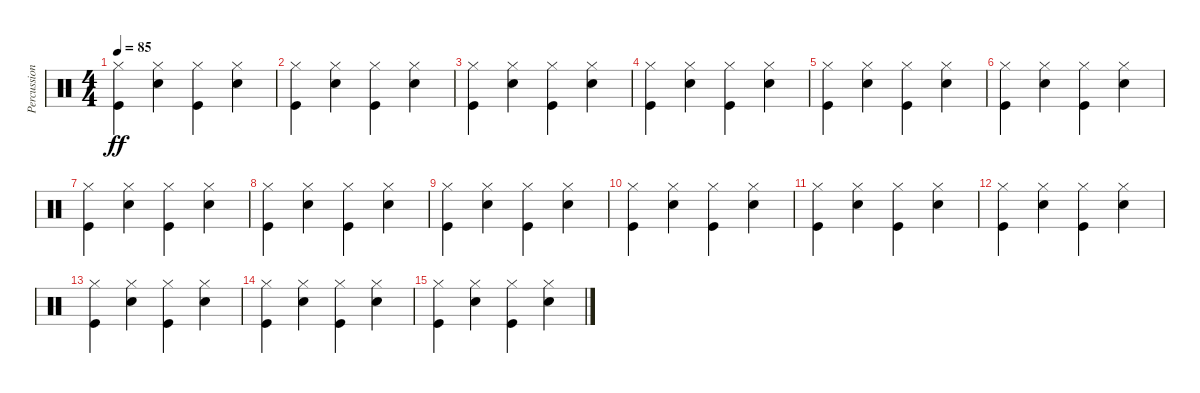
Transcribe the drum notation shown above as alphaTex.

\track ("Percussion" "Percussion") {instrument percussion}
\staff {score}
\articulation defaults
\ts (4 4)
\tempo 85
\clef neutral
\ks c
("Hi-Hat (closed)" "Kick (hit)").4{dy ff} ("Hi-Hat (closed)" "Snare (hit) 2").4 ("Hi-Hat (closed)" "Kick (hit)").4 ("Hi-Hat (closed)" "Snare (hit) 2").4 |
("Hi-Hat (closed)" "Kick (hit)").4 ("Hi-Hat (closed)" "Snare (hit) 2").4 ("Hi-Hat (closed)" "Kick (hit)").4 ("Hi-Hat (closed)" "Snare (hit) 2").4 |
("Hi-Hat (closed)" "Kick (hit)").4 ("Hi-Hat (closed)" "Snare (hit) 2").4 ("Hi-Hat (closed)" "Kick (hit)").4 ("Hi-Hat (closed)" "Snare (hit) 2").4 |
("Hi-Hat (closed)" "Kick (hit)").4 ("Hi-Hat (closed)" "Snare (hit) 2").4 ("Hi-Hat (closed)" "Kick (hit)").4 ("Hi-Hat (closed)" "Snare (hit) 2").4 |
("Hi-Hat (closed)" "Kick (hit)").4 ("Hi-Hat (closed)" "Snare (hit) 2").4 ("Hi-Hat (closed)" "Kick (hit)").4 ("Hi-Hat (closed)" "Snare (hit) 2").4 |
("Hi-Hat (closed)" "Kick (hit)").4 ("Hi-Hat (closed)" "Snare (hit) 2").4 ("Hi-Hat (closed)" "Kick (hit)").4 ("Hi-Hat (closed)" "Snare (hit) 2").4 |
("Hi-Hat (closed)" "Kick (hit)").4 ("Hi-Hat (closed)" "Snare (hit) 2").4 ("Hi-Hat (closed)" "Kick (hit)").4 ("Hi-Hat (closed)" "Snare (hit) 2").4 |
("Hi-Hat (closed)" "Kick (hit)").4 ("Hi-Hat (closed)" "Snare (hit) 2").4 ("Hi-Hat (closed)" "Kick (hit)").4 ("Hi-Hat (closed)" "Snare (hit) 2").4 |
("Hi-Hat (closed)" "Kick (hit)").4 ("Hi-Hat (closed)" "Snare (hit) 2").4 ("Hi-Hat (closed)" "Kick (hit)").4 ("Hi-Hat (closed)" "Snare (hit) 2").4 |
("Hi-Hat (closed)" "Kick (hit)").4 ("Hi-Hat (closed)" "Snare (hit) 2").4 ("Hi-Hat (closed)" "Kick (hit)").4 ("Hi-Hat (closed)" "Snare (hit) 2").4 |
("Hi-Hat (closed)" "Kick (hit)").4 ("Hi-Hat (closed)" "Snare (hit) 2").4 ("Hi-Hat (closed)" "Kick (hit)").4 ("Hi-Hat (closed)" "Snare (hit) 2").4 |
("Hi-Hat (closed)" "Kick (hit)").4{volume 9} ("Hi-Hat (closed)" "Snare (hit) 2").4 ("Hi-Hat (closed)" "Kick (hit)").4 ("Hi-Hat (closed)" "Snare (hit) 2").4 |
("Hi-Hat (closed)" "Kick (hit)").4 ("Hi-Hat (closed)" "Snare (hit) 2").4 ("Hi-Hat (closed)" "Kick (hit)").4 ("Hi-Hat (closed)" "Snare (hit) 2").4 |
("Hi-Hat (closed)" "Kick (hit)").4{volume 4} ("Hi-Hat (closed)" "Snare (hit) 2").4 ("Hi-Hat (closed)" "Kick (hit)").4 ("Hi-Hat (closed)" "Snare (hit) 2").4 |
("Hi-Hat (closed)" "Kick (hit)").4 ("Hi-Hat (closed)" "Snare (hit) 2").4 ("Hi-Hat (closed)" "Kick (hit)").4 ("Hi-Hat (closed)" "Snare (hit) 2").4
